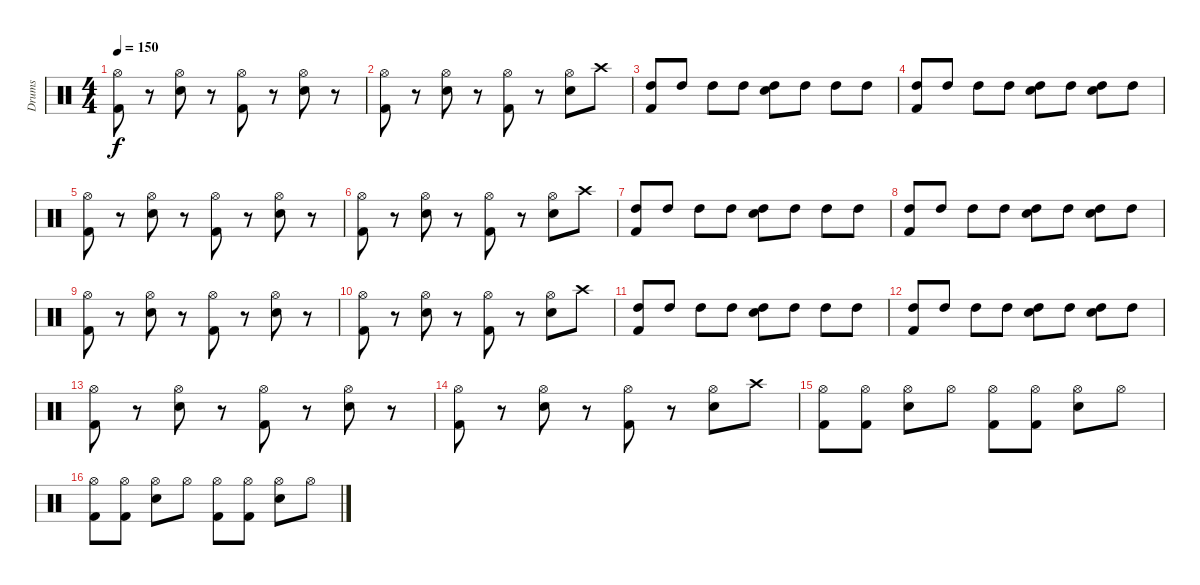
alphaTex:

\track ("Drums" "Drums") {instrument percussion}
\staff {score}
\articulation defaults
\ts (4 4)
\tempo 150
\clef neutral
\ks c
("Hi-Hat (open)" "Kick (hit) 2").8{dy f} r.8 ("Hi-Hat (open)" "Electric Snare (hit)").8 r.8 ("Hi-Hat (open)" "Kick (hit) 2").8 r.8 ("Hi-Hat (open)" "Electric Snare (hit)").8 r.8 |
("Hi-Hat (open)" "Kick (hit) 2").8 r.8 ("Hi-Hat (open)" "Electric Snare (hit)").8 r.8 ("Hi-Hat (open)" "Kick (hit) 2").8 r.8 ("Hi-Hat (open)" "Electric Snare (hit)").8 "Crash high (hit)".8 |
("High Tom (hit)" "Kick (hit) 2").8 "High Tom (hit)".8 "High Tom (hit)".8 "High Tom (hit)".8 ("High Tom (hit)" "Electric Snare (hit)").8 "High Tom (hit)".8 "High Tom (hit)".8 "High Tom (hit)".8 |
("High Tom (hit)" "Kick (hit) 2").8 "High Tom (hit)".8 "High Tom (hit)".8 "High Tom (hit)".8 ("High Tom (hit)" "Electric Snare (hit)").8 "High Tom (hit)".8 ("High Tom (hit)" "Electric Snare (hit)").8 "High Tom (hit)".8 |
("Hi-Hat (open)" "Kick (hit) 2").8 r.8 ("Hi-Hat (open)" "Electric Snare (hit)").8 r.8 ("Hi-Hat (open)" "Kick (hit) 2").8 r.8 ("Hi-Hat (open)" "Electric Snare (hit)").8 r.8 |
("Hi-Hat (open)" "Kick (hit) 2").8 r.8 ("Hi-Hat (open)" "Electric Snare (hit)").8 r.8 ("Hi-Hat (open)" "Kick (hit) 2").8 r.8 ("Hi-Hat (open)" "Electric Snare (hit)").8 "Crash high (hit)".8 |
("High Tom (hit)" "Kick (hit) 2").8 "High Tom (hit)".8 "High Tom (hit)".8 "High Tom (hit)".8 ("High Tom (hit)" "Electric Snare (hit)").8 "High Tom (hit)".8 "High Tom (hit)".8 "High Tom (hit)".8 |
("High Tom (hit)" "Kick (hit) 2").8 "High Tom (hit)".8 "High Tom (hit)".8 "High Tom (hit)".8 ("High Tom (hit)" "Electric Snare (hit)").8 "High Tom (hit)".8 ("High Tom (hit)" "Electric Snare (hit)").8 "High Tom (hit)".8 |
("Hi-Hat (open)" "Kick (hit) 2").8 r.8 ("Hi-Hat (open)" "Electric Snare (hit)").8 r.8 ("Hi-Hat (open)" "Kick (hit) 2").8 r.8 ("Hi-Hat (open)" "Electric Snare (hit)").8 r.8 |
("Hi-Hat (open)" "Kick (hit) 2").8 r.8 ("Hi-Hat (open)" "Electric Snare (hit)").8 r.8 ("Hi-Hat (open)" "Kick (hit) 2").8 r.8 ("Hi-Hat (open)" "Electric Snare (hit)").8 "Crash high (hit)".8 |
("High Tom (hit)" "Kick (hit) 2").8 "High Tom (hit)".8 "High Tom (hit)".8 "High Tom (hit)".8 ("High Tom (hit)" "Electric Snare (hit)").8 "High Tom (hit)".8 "High Tom (hit)".8 "High Tom (hit)".8 |
("High Tom (hit)" "Kick (hit) 2").8 "High Tom (hit)".8 "High Tom (hit)".8 "High Tom (hit)".8 ("High Tom (hit)" "Electric Snare (hit)").8 "High Tom (hit)".8 ("High Tom (hit)" "Electric Snare (hit)").8 "High Tom (hit)".8 |
("Hi-Hat (open)" "Kick (hit) 2").8 r.8 ("Hi-Hat (open)" "Electric Snare (hit)").8 r.8 ("Hi-Hat (open)" "Kick (hit) 2").8 r.8 ("Hi-Hat (open)" "Electric Snare (hit)").8 r.8 |
("Hi-Hat (open)" "Kick (hit) 2").8 r.8 ("Hi-Hat (open)" "Electric Snare (hit)").8 r.8 ("Hi-Hat (open)" "Kick (hit) 2").8 r.8 ("Hi-Hat (open)" "Electric Snare (hit)").8 "Crash high (hit)".8 |
("Hi-Hat (open)" "Kick (hit) 2").8 ("Hi-Hat (open)" "Kick (hit) 2").8 ("Hi-Hat (open)" "Electric Snare (hit)").8 "Hi-Hat (open)".8 ("Hi-Hat (open)" "Kick (hit) 2").8 ("Hi-Hat (open)" "Kick (hit) 2").8 ("Hi-Hat (open)" "Electric Snare (hit)").8 "Hi-Hat (open)".8 |
("Hi-Hat (open)" "Kick (hit) 2").8 ("Hi-Hat (open)" "Kick (hit) 2").8 ("Hi-Hat (open)" "Electric Snare (hit)").8 "Hi-Hat (open)".8 ("Hi-Hat (open)" "Kick (hit) 2").8 ("Hi-Hat (open)" "Kick (hit) 2").8 ("Hi-Hat (open)" "Electric Snare (hit)").8 "Hi-Hat (open)".8
